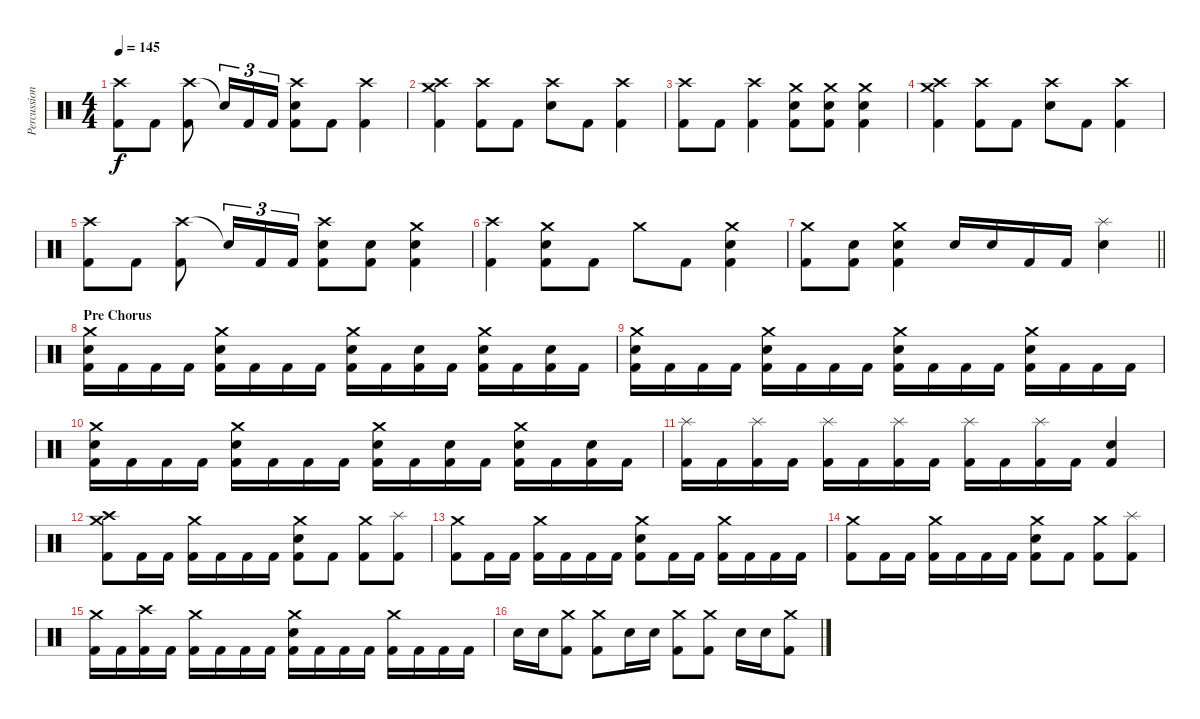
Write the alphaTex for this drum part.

\track ("Percussion" "Percussion") {instrument percussion}
\staff {score}
\articulation defaults
\ts (4 4)
\tempo 145
\clef neutral
\ks c
("Crash high (hit)" "Kick (hit) 2").8{dy f} "Kick (hit) 2".8 ("Crash high (hit)" "Kick (hit) 2").8 "Snare (hit)"{t}.16{tu (3 2)} "Kick (hit) 2".16{tu (3 2)} "Kick (hit) 2".16{tu (3 2)} ("Crash high (hit)" "Electric Snare (hit)" "Kick (hit) 2").8 "Kick (hit) 2".8 ("Crash high (hit)" "Kick (hit) 2").4 |
("Crash high (hit)" "Crash medium (hit)" "Kick (hit) 2").4 ("Crash high (hit)" "Kick (hit) 2").8 "Kick (hit) 2".8 ("Crash high (hit)" "Electric Snare (hit)").8 "Kick (hit) 2".8 ("Crash high (hit)" "Kick (hit) 2").4 |
("Crash high (hit)" "Kick (hit) 2").8 "Kick (hit) 2".8 ("Crash high (hit)" "Kick (hit) 2").4 ("Crash medium (hit)" "Electric Snare (hit)" "Kick (hit) 2").8 ("Crash medium (hit)" "Electric Snare (hit)" "Kick (hit) 2").8 ("Crash medium (hit)" "Electric Snare (hit)" "Kick (hit) 2").4 |
("Crash high (hit)" "Crash medium (hit)" "Kick (hit) 2").4 ("Crash high (hit)" "Kick (hit) 2").8 "Kick (hit) 2".8 ("Crash high (hit)" "Electric Snare (hit)").8 "Kick (hit) 2".8 ("Crash high (hit)" "Kick (hit) 2").4 |
("Crash high (hit)" "Kick (hit) 2").8 "Kick (hit) 2".8 ("Crash high (hit)" "Kick (hit) 2").8 "Snare (hit)"{t}.16{tu (3 2)} "Kick (hit) 2".16{tu (3 2)} "Kick (hit) 2".16{tu (3 2)} ("Crash high (hit)" "Electric Snare (hit)" "Kick (hit) 2").8 ("Electric Snare (hit)" "Kick (hit) 2").8 ("Crash medium (hit)" "Electric Snare (hit)" "Kick (hit) 2").4 |
("Crash high (hit)" "Kick (hit) 2").4 ("Crash medium (hit)" "Electric Snare (hit)" "Kick (hit) 2").8 "Kick (hit) 2".8 "Crash medium (hit)".8 "Kick (hit) 2".8 ("Crash medium (hit)" "Electric Snare (hit)" "Kick (hit) 2").4 |
\barLineRight lightlight
("Crash medium (hit)" "Kick (hit) 2").8 ("Electric Snare (hit)" "Kick (hit) 2").8 ("Crash medium (hit)" "Electric Snare (hit)" "Kick (hit) 2").4 "Electric Snare (hit)".16 "Electric Snare (hit)".16 "Kick (hit) 2".16 "Kick (hit) 2".16 ("Splash (hit)" "Electric Snare (hit)").4 |
\section ("" "Pre Chorus")
("Crash medium (hit)" "Electric Snare (hit)" "Kick (hit) 2").16 "Kick (hit) 2".16 "Kick (hit) 2".16 "Kick (hit) 2".16 ("Crash medium (hit)" "Electric Snare (hit)" "Kick (hit) 2").16 "Kick (hit) 2".16 "Kick (hit) 2".16 "Kick (hit) 2".16 ("Crash medium (hit)" "Electric Snare (hit)" "Kick (hit) 2").16 "Kick (hit) 2".16 ("Electric Snare (hit)" "Kick (hit) 2").16 "Kick (hit) 2".16 ("Crash medium (hit)" "Electric Snare (hit)" "Kick (hit) 2").16 "Kick (hit) 2".16 ("Electric Snare (hit)" "Kick (hit) 2").16 "Kick (hit) 2".16 |
("Crash medium (hit)" "Electric Snare (hit)" "Kick (hit) 2").16 "Kick (hit) 2".16 "Kick (hit) 2".16 "Kick (hit) 2".16 ("Crash medium (hit)" "Electric Snare (hit)" "Kick (hit) 2").16 "Kick (hit) 2".16 "Kick (hit) 2".16 "Kick (hit) 2".16 ("Crash medium (hit)" "Electric Snare (hit)" "Kick (hit) 2").16 "Kick (hit) 2".16 "Kick (hit) 2".16 "Kick (hit) 2".16 ("Crash medium (hit)" "Electric Snare (hit)" "Kick (hit) 2").16 "Kick (hit) 2".16 "Kick (hit) 2".16 "Kick (hit) 2".16 |
("Crash medium (hit)" "Electric Snare (hit)" "Kick (hit) 2").16 "Kick (hit) 2".16 "Kick (hit) 2".16 "Kick (hit) 2".16 ("Crash medium (hit)" "Electric Snare (hit)" "Kick (hit) 2").16 "Kick (hit) 2".16 "Kick (hit) 2".16 "Kick (hit) 2".16 ("Crash medium (hit)" "Electric Snare (hit)" "Kick (hit) 2").16 "Kick (hit) 2".16 ("Electric Snare (hit)" "Kick (hit) 2").16 "Kick (hit) 2".16 ("Crash medium (hit)" "Electric Snare (hit)" "Kick (hit) 2").16 "Kick (hit) 2".16 ("Electric Snare (hit)" "Kick (hit) 2").16 "Kick (hit) 2".16 |
("Splash (hit)" "Kick (hit) 2").16 "Kick (hit) 2".16 ("Splash (hit)" "Kick (hit) 2").16 "Kick (hit) 2".16 ("Splash (hit)" "Kick (hit) 2").16 "Kick (hit) 2".16 ("Splash (hit)" "Kick (hit) 2").16 "Kick (hit) 2".16 ("Splash (hit)" "Kick (hit) 2").16 "Kick (hit) 2".16 ("Splash (hit)" "Kick (hit) 2").16 "Kick (hit) 2".16 ("Electric Snare (hit)" "Kick (hit) 2").4 |
("Crash high (hit)" "Crash medium (hit)" "Kick (hit) 2").8 "Kick (hit) 2".16 "Kick (hit) 2".16 ("Crash medium (hit)" "Kick (hit) 2").16 "Kick (hit) 2".16 "Kick (hit) 2".16 "Kick (hit) 2".16 ("Crash medium (hit)" "Electric Snare (hit)" "Kick (hit) 2").8 "Kick (hit) 2".8 ("Crash medium (hit)" "Kick (hit) 2").8 ("Splash (hit)" "Kick (hit) 2").8 |
("Crash medium (hit)" "Kick (hit) 2").8 "Kick (hit) 2".16 "Kick (hit) 2".16 ("Crash medium (hit)" "Kick (hit) 2").16 "Kick (hit) 2".16 "Kick (hit) 2".16 "Kick (hit) 2".16 ("Crash medium (hit)" "Electric Snare (hit)" "Kick (hit) 2").8 "Kick (hit) 2".16 "Kick (hit) 2".16 ("Crash medium (hit)" "Kick (hit) 2").16 "Kick (hit) 2".16 "Kick (hit) 2".16 "Kick (hit) 2".16 |
("Crash medium (hit)" "Kick (hit) 2").8 "Kick (hit) 2".16 "Kick (hit) 2".16 ("Crash medium (hit)" "Kick (hit) 2").16 "Kick (hit) 2".16 "Kick (hit) 2".16 "Kick (hit) 2".16 ("Crash medium (hit)" "Electric Snare (hit)" "Kick (hit) 2").8 "Kick (hit) 2".8 ("Crash medium (hit)" "Kick (hit) 2").8 ("Splash (hit)" "Kick (hit) 2").8 |
("Crash medium (hit)" "Kick (hit) 2").16 "Kick (hit) 2".16 ("Crash high (hit)" "Kick (hit) 2").16 "Kick (hit) 2".16 ("Crash medium (hit)" "Kick (hit) 2").16 "Kick (hit) 2".16 "Kick (hit) 2".16 "Kick (hit) 2".16 ("Crash medium (hit)" "Electric Snare (hit)" "Kick (hit) 2").16 "Kick (hit) 2".16 "Kick (hit) 2".16 "Kick (hit) 2".16 ("Crash medium (hit)" "Kick (hit) 2").16 "Kick (hit) 2".16 "Kick (hit) 2".16 "Kick (hit) 2".16 |
"Electric Snare (hit)".16 "Electric Snare (hit)".16 ("Crash medium (hit)" "Kick (hit) 2").8 ("Crash medium (hit)" "Kick (hit) 2").8 "Electric Snare (hit)".16 "Electric Snare (hit)".16 ("Crash medium (hit)" "Kick (hit) 2").8 ("Crash medium (hit)" "Kick (hit) 2").8 "Electric Snare (hit)".16 "Electric Snare (hit)".16 ("Crash medium (hit)" "Kick (hit) 2").8
